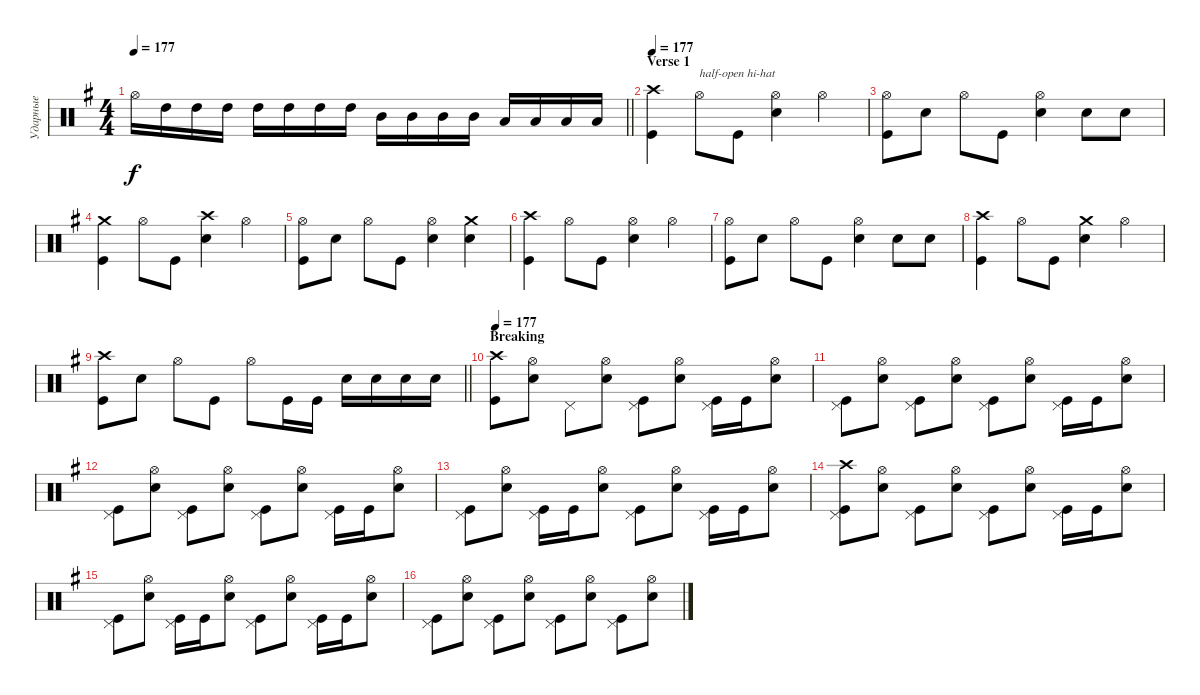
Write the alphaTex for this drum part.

\track ("Ударные" "Ударные") {instrument percussion}
\staff {score}
\articulation defaults
\ts (4 4)
\tempo 177
\clef neutral
\barLineRight lightlight
\ks eminor "Hi-Hat (open)".16{dy f} "High Tom (hit)".16 "High Tom (hit)".16 "High Tom (hit)".16 "High Tom (hit)".16 "High Tom (hit)".16 "High Tom (hit)".16 "High Tom (hit)".16 "Mid Tom (hit)".16 "Mid Tom (hit)".16 "Mid Tom (hit)".16 "Mid Tom (hit)".16 "Low Tom (hit)".16 "Low Tom (hit)".16 "Low Tom (hit)".16 "Low Tom (hit)".16
|
\section ("" "Verse 1")
\tempo 177
("Crash high (hit)" "Kick (hit)").4 "Hi-Hat (open)".8{txt "half-open hi-hat"} "Kick (hit)".8 ("Snare (hit) 2" "Hi-Hat (open)").4 "Hi-Hat (open)".4 |
("Kick (hit)" "Hi-Hat (open)").8 "Snare (hit) 2".8 "Hi-Hat (open)".8 "Kick (hit)".8 ("Snare (hit) 2" "Hi-Hat (open)").4 "Snare (hit) 2".8 "Snare (hit) 2".8 |
("Crash medium (hit)" "Kick (hit)").4 "Hi-Hat (open)".8 "Kick (hit)".8 ("Snare (hit) 2" "Crash high (hit)").4 "Hi-Hat (open)".4 |
("Kick (hit)" "Hi-Hat (open)").8 "Snare (hit) 2".8 "Hi-Hat (open)".8 "Kick (hit)".8 ("Snare (hit) 2" "Hi-Hat (open)").4 ("Snare (hit) 2" "Crash medium (hit)").4 |
("Crash high (hit)" "Kick (hit)").4 "Hi-Hat (open)".8 "Kick (hit)".8 ("Snare (hit) 2" "Hi-Hat (open)").4 "Hi-Hat (open)".4 |
("Kick (hit)" "Hi-Hat (open)").8 "Snare (hit) 2".8 "Hi-Hat (open)".8 "Kick (hit)".8 ("Snare (hit) 2" "Hi-Hat (open)").4 "Snare (hit) 2".8 "Snare (hit) 2".8 |
("Crash high (hit)" "Kick (hit)").4 "Hi-Hat (open)".8 "Kick (hit)".8 ("Snare (hit) 2" "Crash medium (hit)").4 "Hi-Hat (open)".4 |
\barLineRight lightlight
("Kick (hit)" "Crash high (hit)").8 "Snare (hit) 2".8 "Hi-Hat (open)".8 "Kick (hit)".8 "Hi-Hat (open)".8 "Kick (hit)".16 "Kick (hit)".16 "Snare (hit) 2".16 "Snare (hit) 2".16 "Snare (hit) 2".16 "Snare (hit) 2".16 |
\section ("" "Breaking")
\tempo 177
("Kick (hit)" "Crash high (hit)").8 ("Hi-Hat (open)" "Snare (hit) 2").8 "Pedal Hi-Hat (hit)".8 ("Snare (hit) 2" "Hi-Hat (open)").8 ("Kick (hit)" "Pedal Hi-Hat (hit)").8 ("Hi-Hat (open)" "Snare (hit) 2").8 ("Kick (hit)" "Pedal Hi-Hat (hit)").16 "Kick (hit)".16 ("Snare (hit) 2" "Hi-Hat (open)").8 |
("Kick (hit)" "Pedal Hi-Hat (hit)").8 ("Hi-Hat (open)" "Snare (hit) 2").8 ("Kick (hit)" "Pedal Hi-Hat (hit)").8 ("Snare (hit) 2" "Hi-Hat (open)").8 ("Kick (hit)" "Pedal Hi-Hat (hit)").8 ("Hi-Hat (open)" "Snare (hit) 2").8 ("Kick (hit)" "Pedal Hi-Hat (hit)").16 "Kick (hit)".16 ("Snare (hit) 2" "Hi-Hat (open)").8 |
("Kick (hit)" "Pedal Hi-Hat (hit)").8 ("Hi-Hat (open)" "Snare (hit) 2").8 ("Kick (hit)" "Pedal Hi-Hat (hit)").8 ("Snare (hit) 2" "Hi-Hat (open)").8 ("Kick (hit)" "Pedal Hi-Hat (hit)").8 ("Hi-Hat (open)" "Snare (hit) 2").8 ("Kick (hit)" "Pedal Hi-Hat (hit)").16 "Kick (hit)".16 ("Snare (hit) 2" "Hi-Hat (open)").8 |
("Kick (hit)" "Pedal Hi-Hat (hit)").8 ("Hi-Hat (open)" "Snare (hit) 2").8 ("Kick (hit)" "Pedal Hi-Hat (hit)").16 "Kick (hit)".16 ("Snare (hit) 2" "Hi-Hat (open)").8 ("Kick (hit)" "Pedal Hi-Hat (hit)").8 ("Hi-Hat (open)" "Snare (hit) 2").8 ("Kick (hit)" "Pedal Hi-Hat (hit)").16 "Kick (hit)".16 ("Snare (hit) 2" "Hi-Hat (open)").8 |
("Kick (hit)" "Crash high (hit)" "Pedal Hi-Hat (hit)").8 ("Hi-Hat (open)" "Snare (hit) 2").8 ("Kick (hit)" "Pedal Hi-Hat (hit)").8 ("Snare (hit) 2" "Hi-Hat (open)").8 ("Kick (hit)" "Pedal Hi-Hat (hit)").8 ("Hi-Hat (open)" "Snare (hit) 2").8 ("Kick (hit)" "Pedal Hi-Hat (hit)").16 "Kick (hit)".16 ("Snare (hit) 2" "Hi-Hat (open)").8 |
("Kick (hit)" "Pedal Hi-Hat (hit)").8 ("Hi-Hat (open)" "Snare (hit) 2").8 ("Kick (hit)" "Pedal Hi-Hat (hit)").16 "Kick (hit)".16 ("Snare (hit) 2" "Hi-Hat (open)").8 ("Kick (hit)" "Pedal Hi-Hat (hit)").8 ("Hi-Hat (open)" "Snare (hit) 2").8 ("Kick (hit)" "Pedal Hi-Hat (hit)").16 "Kick (hit)".16 ("Snare (hit) 2" "Hi-Hat (open)").8 |
("Kick (hit)" "Pedal Hi-Hat (hit)").8 ("Hi-Hat (open)" "Snare (hit) 2").8 ("Kick (hit)" "Pedal Hi-Hat (hit)").8 ("Snare (hit) 2" "Hi-Hat (open)").8 ("Kick (hit)" "Pedal Hi-Hat (hit)").8 ("Hi-Hat (open)" "Snare (hit) 2").8 ("Kick (hit)" "Pedal Hi-Hat (hit)").8 ("Snare (hit) 2" "Hi-Hat (open)").8
